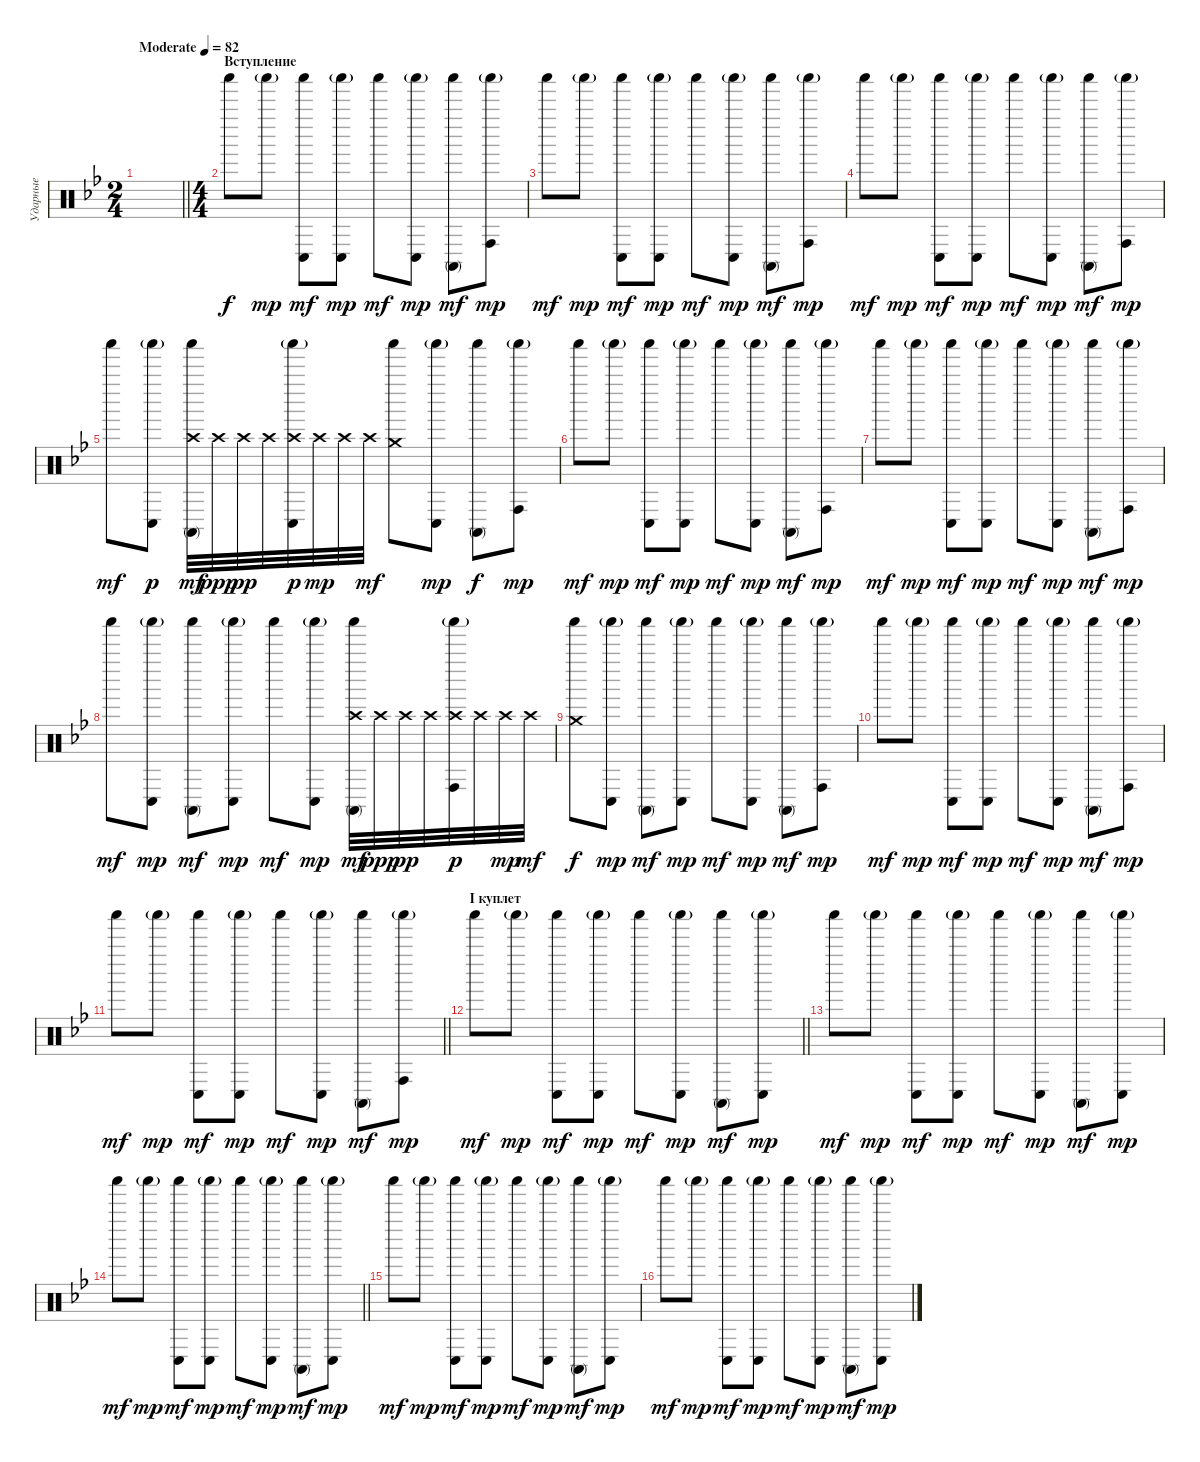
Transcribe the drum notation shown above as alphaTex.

\track ("Ударные" "Ударные") {instrument percussion}
\staff {score}
\articulation defaults
\ts (2 4)
\tempo (82 "Moderate")
\clef neutral
\barLineRight lightlight
\ks gminor
|
\ts (4 4)
\section ("" "Вступление")
"Shaker (hit)".8 "Shaker (hit)"{g}.8{dy mp} ("Shaker (hit)" "Conga low (hit)").8{dy mf} ("Shaker (hit)"{g} "Conga low (hit)").8{dy mp} "Shaker (hit)".8{dy mf} ("Shaker (hit)"{g} "Conga low (hit)").8{dy mp} ("Shaker (hit)" "Conga high (mute)").8{dy mf} ("Shaker (hit)"{g} "Conga high (hit)").8{dy mp} |
"Shaker (hit)".8{dy mf} "Shaker (hit)"{g}.8{dy mp} ("Shaker (hit)" "Conga low (hit)").8{dy mf} ("Shaker (hit)"{g} "Conga low (hit)").8{dy mp} "Shaker (hit)".8{dy mf} ("Shaker (hit)"{g} "Conga low (hit)").8{dy mp} ("Shaker (hit)" "Conga high (mute)").8{dy mf} ("Shaker (hit)"{g} "Conga high (hit)").8{dy mp} |
"Shaker (hit)".8{dy mf} "Shaker (hit)"{g}.8{dy mp} ("Shaker (hit)" "Conga low (hit)").8{dy mf} ("Shaker (hit)"{g} "Conga low (hit)").8{dy mp} "Shaker (hit)".8{dy mf} ("Shaker (hit)"{g} "Conga low (hit)").8{dy mp} ("Shaker (hit)" "Conga high (mute)").8{dy mf} ("Shaker (hit)"{g} "Conga high (hit)").8{dy mp} |
"Shaker (hit)".8{dy mf} ("Shaker (hit)"{g} "Conga low (hit)").8{dy p} ("Crash high (hit)" "Conga high (mute)" "Shaker (hit)").32{dy mf} "Crash high (hit)".32{dy ppp} "Crash high (hit)".32{dy pp} "Crash high (hit)".32 ("Crash high (hit)" "Conga low (hit)" "Shaker (hit)"{g}).32{dy p} "Crash high (hit)".32{dy mp} "Crash high (hit)".32 "Crash high (hit)".32{dy mf} ("Crash medium (hit)" "Shaker (hit)").8 ("Conga low (hit)" "Shaker (hit)"{g}).8{dy mp} ("Conga high (mute)" "Shaker (hit)").8{dy f} ("Conga high (hit)" "Shaker (hit)"{g}).8{dy mp} |
"Shaker (hit)".8{dy mf} "Shaker (hit)"{g}.8{dy mp} ("Shaker (hit)" "Conga low (hit)").8{dy mf} ("Shaker (hit)"{g} "Conga low (hit)").8{dy mp} "Shaker (hit)".8{dy mf} ("Shaker (hit)"{g} "Conga low (hit)").8{dy mp} ("Shaker (hit)" "Conga high (mute)").8{dy mf} ("Shaker (hit)"{g} "Conga high (hit)").8{dy mp} |
"Shaker (hit)".8{dy mf} "Shaker (hit)"{g}.8{dy mp} ("Shaker (hit)" "Conga low (hit)").8{dy mf} ("Shaker (hit)"{g} "Conga low (hit)").8{dy mp} "Shaker (hit)".8{dy mf} ("Shaker (hit)"{g} "Conga low (hit)").8{dy mp} ("Shaker (hit)" "Conga high (mute)").8{dy mf} ("Shaker (hit)"{g} "Conga high (hit)").8{dy mp} |
"Shaker (hit)".8{dy mf} ("Conga low (hit)" "Shaker (hit)"{g}).8{dy mp} ("Conga high (mute)" "Shaker (hit)").8{dy mf} ("Conga low (hit)" "Shaker (hit)"{g}).8{dy mp} "Shaker (hit)".8{dy mf} ("Conga low (hit)" "Shaker (hit)"{g}).8{dy mp} ("Crash high (hit)" "Shaker (hit)" "Conga high (mute)").32{dy mf} "Crash high (hit)".32{dy ppp} "Crash high (hit)".32{dy pp} "Crash high (hit)".32 ("Crash high (hit)" "Shaker (hit)"{g} "Conga high (hit)").32{dy p} "Crash high (hit)".32 "Crash high (hit)".32{dy mp} "Crash high (hit)".32{dy mf} |
("Shaker (hit)" "Crash medium (hit)").8{dy f} ("Shaker (hit)"{g} "Conga low (hit)").8{dy mp} ("Shaker (hit)" "Conga high (mute)").8{dy mf} ("Shaker (hit)"{g} "Conga low (hit)").8{dy mp} "Shaker (hit)".8{dy mf} ("Shaker (hit)"{g} "Conga low (hit)").8{dy mp} ("Shaker (hit)" "Conga high (mute)").8{dy mf} ("Shaker (hit)"{g} "Conga high (hit)").8{dy mp} |
"Shaker (hit)".8{dy mf} "Shaker (hit)"{g}.8{dy mp} ("Shaker (hit)" "Conga low (hit)").8{dy mf} ("Shaker (hit)"{g} "Conga low (hit)").8{dy mp} "Shaker (hit)".8{dy mf} ("Shaker (hit)"{g} "Conga low (hit)").8{dy mp} ("Shaker (hit)" "Conga high (mute)").8{dy mf} ("Shaker (hit)"{g} "Conga high (hit)").8{dy mp} |
\barLineRight lightlight "Shaker (hit)".8{dy mf} "Shaker (hit)"{g}.8{dy mp}
("Shaker (hit)" "Conga low (hit)").8{dy mf} ("Shaker (hit)"{g} "Conga low (hit)").8{dy mp} "Shaker (hit)".8{dy mf} ("Shaker (hit)"{g} "Conga low (hit)").8{dy mp} ("Shaker (hit)" "Conga high (mute)").8{dy mf} ("Shaker (hit)"{g} "Conga high (hit)").8{dy mp} |
\section ("" "I куплет")
\barLineRight lightlight "Shaker (hit)".8{dy mf} "Shaker (hit)"{g}.8{dy mp}
("Shaker (hit)" "Conga low (hit)").8{dy mf} ("Shaker (hit)"{g} "Conga low (hit)").8{dy mp} "Shaker (hit)".8{dy mf} ("Shaker (hit)"{g} "Conga low (hit)").8{dy mp} ("Shaker (hit)" "Conga high (mute)").8{dy mf} ("Shaker (hit)"{g} "Conga low (hit)").8{dy mp} |
"Shaker (hit)".8{dy mf} "Shaker (hit)"{g}.8{dy mp} ("Shaker (hit)" "Conga low (hit)").8{dy mf} ("Shaker (hit)"{g} "Conga low (hit)").8{dy mp} "Shaker (hit)".8{dy mf} ("Shaker (hit)"{g} "Conga low (hit)").8{dy mp} ("Shaker (hit)" "Conga high (mute)").8{dy mf} ("Shaker (hit)"{g} "Conga low (hit)").8{dy mp} |
\barLineRight lightlight "Shaker (hit)".8{dy mf} "Shaker (hit)"{g}.8{dy mp}
("Shaker (hit)" "Conga low (hit)").8{dy mf} ("Shaker (hit)"{g} "Conga low (hit)").8{dy mp} "Shaker (hit)".8{dy mf} ("Shaker (hit)"{g} "Conga low (hit)").8{dy mp} ("Shaker (hit)" "Conga high (mute)").8{dy mf} ("Shaker (hit)"{g} "Conga low (hit)").8{dy mp} |
"Shaker (hit)".8{dy mf} "Shaker (hit)"{g}.8{dy mp} ("Shaker (hit)" "Conga low (hit)").8{dy mf} ("Shaker (hit)"{g} "Conga low (hit)").8{dy mp} "Shaker (hit)".8{dy mf} ("Shaker (hit)"{g} "Conga low (hit)").8{dy mp} ("Shaker (hit)" "Conga high (mute)").8{dy mf} ("Shaker (hit)"{g} "Conga low (hit)").8{dy mp} |
"Shaker (hit)".8{dy mf} "Shaker (hit)"{g}.8{dy mp} ("Shaker (hit)" "Conga low (hit)").8{dy mf} ("Shaker (hit)"{g} "Conga low (hit)").8{dy mp} "Shaker (hit)".8{dy mf} ("Shaker (hit)"{g} "Conga low (hit)").8{dy mp} ("Shaker (hit)" "Conga high (mute)").8{dy mf} ("Shaker (hit)"{g} "Conga low (hit)").8{dy mp}
